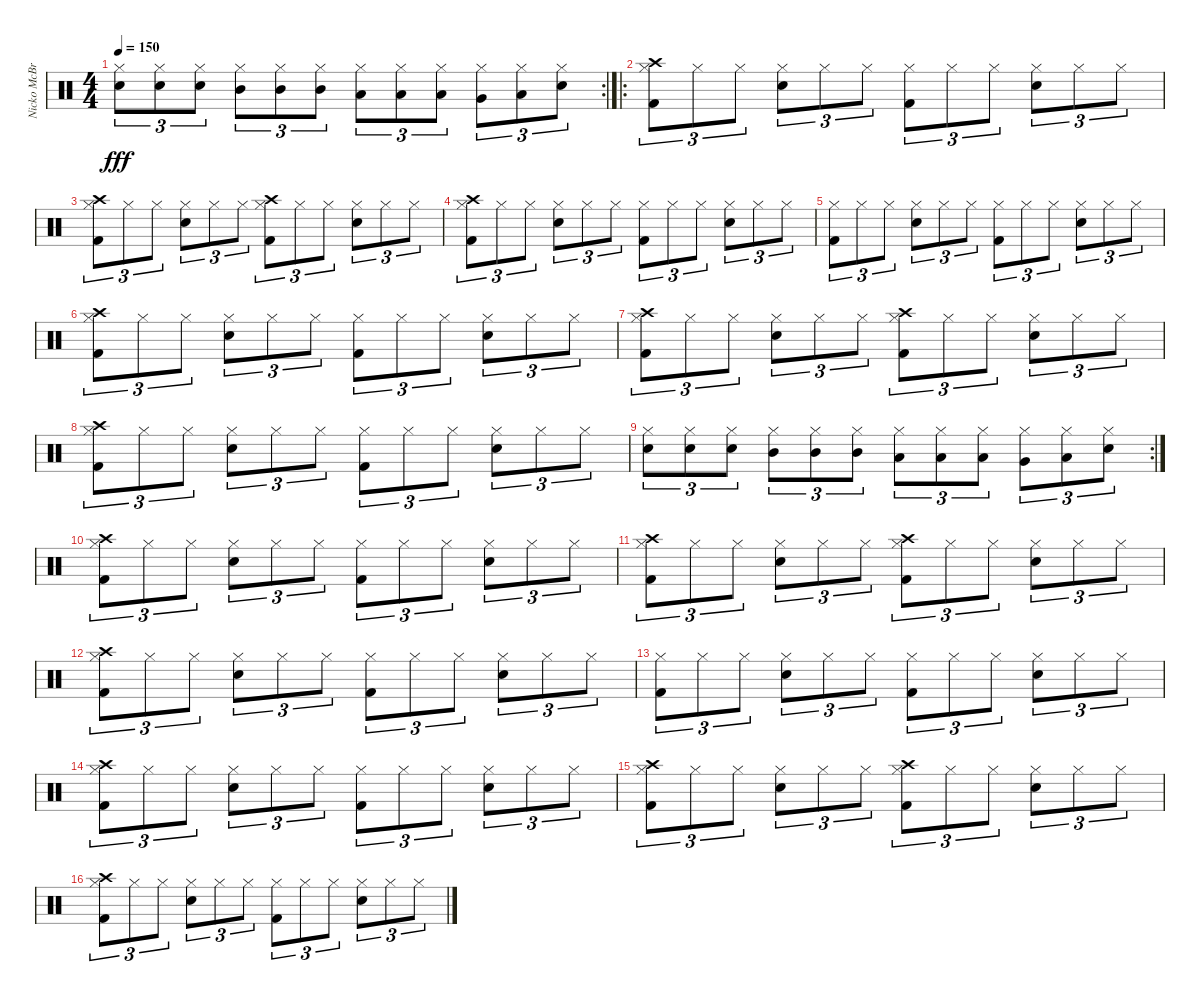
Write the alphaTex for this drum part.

\track ("Nicko McBrain" "Nicko McBr") {instrument percussion}
\staff {score}
\articulation defaults
\rc 2
\ts (4 4)
\tempo 150
\clef neutral
\ks c
("Snare (hit) 2" "Hi-Hat (closed)").8{tu (3 2) dy fff} ("Snare (hit) 2" "Hi-Hat (closed)").8{tu (3 2)} ("Snare (hit) 2" "Hi-Hat (closed)").8{tu (3 2)} ("Mid Tom (hit)" "Hi-Hat (closed)").8{tu (3 2)} ("Mid Tom (hit)" "Hi-Hat (closed)").8{tu (3 2)} ("Mid Tom (hit)" "Hi-Hat (closed)").8{tu (3 2)} ("Low Tom (hit)" "Hi-Hat (closed)").8{tu (3 2)} ("Low Tom (hit)" "Hi-Hat (closed)").8{tu (3 2)} ("Low Tom (hit)" "Hi-Hat (closed)").8{tu (3 2)} ("Very Low Tom (hit)" "Hi-Hat (closed)").8{tu (3 2)} ("Low Floor Tom (hit)" "Hi-Hat (closed)").8{tu (3 2)} ("Electric Snare (hit)" "Hi-Hat (closed)").8{tu (3 2)} |
\ro
("Hi-Hat (closed)" "Kick (hit) 2" "Crash high (hit)").8{tu (3 2)} "Hi-Hat (closed)".8{tu (3 2)} "Hi-Hat (closed)".8{tu (3 2)} ("Hi-Hat (closed)" "Snare (hit) 2").8{tu (3 2)} "Hi-Hat (closed)".8{tu (3 2)} "Hi-Hat (closed)".8{tu (3 2)} ("Hi-Hat (closed)" "Kick (hit) 2").8{tu (3 2)} "Hi-Hat (closed)".8{tu (3 2)} "Hi-Hat (closed)".8{tu (3 2)} ("Hi-Hat (closed)" "Snare (hit) 2").8{tu (3 2)} "Hi-Hat (closed)".8{tu (3 2)} "Hi-Hat (closed)".8{tu (3 2)} |
("Hi-Hat (closed)" "Kick (hit) 2" "Crash high (hit)").8{tu (3 2)} "Hi-Hat (closed)".8{tu (3 2)} "Hi-Hat (closed)".8{tu (3 2)} ("Hi-Hat (closed)" "Snare (hit) 2").8{tu (3 2)} "Hi-Hat (closed)".8{tu (3 2)} "Hi-Hat (closed)".8{tu (3 2)} ("Hi-Hat (closed)" "Kick (hit) 2" "Crash high (hit)").8{tu (3 2)} "Hi-Hat (closed)".8{tu (3 2)} "Hi-Hat (closed)".8{tu (3 2)} ("Hi-Hat (closed)" "Snare (hit) 2").8{tu (3 2)} "Hi-Hat (closed)".8{tu (3 2)} "Hi-Hat (closed)".8{tu (3 2)} |
("Hi-Hat (closed)" "Kick (hit) 2" "Crash high (hit)").8{tu (3 2)} "Hi-Hat (closed)".8{tu (3 2)} "Hi-Hat (closed)".8{tu (3 2)} ("Hi-Hat (closed)" "Snare (hit) 2").8{tu (3 2)} "Hi-Hat (closed)".8{tu (3 2)} "Hi-Hat (closed)".8{tu (3 2)} ("Hi-Hat (closed)" "Kick (hit) 2").8{tu (3 2)} "Hi-Hat (closed)".8{tu (3 2)} "Hi-Hat (closed)".8{tu (3 2)} ("Hi-Hat (closed)" "Snare (hit) 2").8{tu (3 2)} "Hi-Hat (closed)".8{tu (3 2)} "Hi-Hat (closed)".8{tu (3 2)} |
("Hi-Hat (closed)" "Kick (hit) 2").8{tu (3 2)} "Hi-Hat (closed)".8{tu (3 2)} "Hi-Hat (closed)".8{tu (3 2)} ("Hi-Hat (closed)" "Snare (hit) 2").8{tu (3 2)} "Hi-Hat (closed)".8{tu (3 2)} "Hi-Hat (closed)".8{tu (3 2)} ("Hi-Hat (closed)" "Kick (hit) 2").8{tu (3 2)} "Hi-Hat (closed)".8{tu (3 2)} "Hi-Hat (closed)".8{tu (3 2)} ("Hi-Hat (closed)" "Snare (hit) 2").8{tu (3 2)} "Hi-Hat (closed)".8{tu (3 2)} "Hi-Hat (closed)".8{tu (3 2)} |
("Hi-Hat (closed)" "Kick (hit) 2" "Crash high (hit)").8{tu (3 2)} "Hi-Hat (closed)".8{tu (3 2)} "Hi-Hat (closed)".8{tu (3 2)} ("Hi-Hat (closed)" "Snare (hit) 2").8{tu (3 2)} "Hi-Hat (closed)".8{tu (3 2)} "Hi-Hat (closed)".8{tu (3 2)} ("Hi-Hat (closed)" "Kick (hit) 2").8{tu (3 2)} "Hi-Hat (closed)".8{tu (3 2)} "Hi-Hat (closed)".8{tu (3 2)} ("Hi-Hat (closed)" "Snare (hit) 2").8{tu (3 2)} "Hi-Hat (closed)".8{tu (3 2)} "Hi-Hat (closed)".8{tu (3 2)} |
("Hi-Hat (closed)" "Kick (hit) 2" "Crash high (hit)").8{tu (3 2)} "Hi-Hat (closed)".8{tu (3 2)} "Hi-Hat (closed)".8{tu (3 2)} ("Hi-Hat (closed)" "Snare (hit) 2").8{tu (3 2)} "Hi-Hat (closed)".8{tu (3 2)} "Hi-Hat (closed)".8{tu (3 2)} ("Hi-Hat (closed)" "Kick (hit) 2" "Crash high (hit)").8{tu (3 2)} "Hi-Hat (closed)".8{tu (3 2)} "Hi-Hat (closed)".8{tu (3 2)} ("Hi-Hat (closed)" "Snare (hit) 2").8{tu (3 2)} "Hi-Hat (closed)".8{tu (3 2)} "Hi-Hat (closed)".8{tu (3 2)} |
("Hi-Hat (closed)" "Kick (hit) 2" "Crash high (hit)").8{tu (3 2)} "Hi-Hat (closed)".8{tu (3 2)} "Hi-Hat (closed)".8{tu (3 2)} ("Hi-Hat (closed)" "Snare (hit) 2").8{tu (3 2)} "Hi-Hat (closed)".8{tu (3 2)} "Hi-Hat (closed)".8{tu (3 2)} ("Hi-Hat (closed)" "Kick (hit) 2").8{tu (3 2)} "Hi-Hat (closed)".8{tu (3 2)} "Hi-Hat (closed)".8{tu (3 2)} ("Hi-Hat (closed)" "Snare (hit) 2").8{tu (3 2)} "Hi-Hat (closed)".8{tu (3 2)} "Hi-Hat (closed)".8{tu (3 2)} |
\rc 2
("Snare (hit) 2" "Hi-Hat (closed)").8{tu (3 2)} ("Snare (hit) 2" "Hi-Hat (closed)").8{tu (3 2)} ("Snare (hit) 2" "Hi-Hat (closed)").8{tu (3 2)} ("Mid Tom (hit)" "Hi-Hat (closed)").8{tu (3 2)} ("Mid Tom (hit)" "Hi-Hat (closed)").8{tu (3 2)} ("Mid Tom (hit)" "Hi-Hat (closed)").8{tu (3 2)} ("Low Tom (hit)" "Hi-Hat (closed)").8{tu (3 2)} ("Low Tom (hit)" "Hi-Hat (closed)").8{tu (3 2)} ("Low Tom (hit)" "Hi-Hat (closed)").8{tu (3 2)} ("Very Low Tom (hit)" "Hi-Hat (closed)").8{tu (3 2)} ("Low Floor Tom (hit)" "Hi-Hat (closed)").8{tu (3 2)} ("Electric Snare (hit)" "Hi-Hat (closed)").8{tu (3 2)} |
("Hi-Hat (closed)" "Kick (hit) 2" "Crash high (hit)").8{tu (3 2)} "Hi-Hat (closed)".8{tu (3 2)} "Hi-Hat (closed)".8{tu (3 2)} ("Hi-Hat (closed)" "Snare (hit) 2").8{tu (3 2)} "Hi-Hat (closed)".8{tu (3 2)} "Hi-Hat (closed)".8{tu (3 2)} ("Hi-Hat (closed)" "Kick (hit) 2").8{tu (3 2)} "Hi-Hat (closed)".8{tu (3 2)} "Hi-Hat (closed)".8{tu (3 2)} ("Hi-Hat (closed)" "Snare (hit) 2").8{tu (3 2)} "Hi-Hat (closed)".8{tu (3 2)} "Hi-Hat (closed)".8{tu (3 2)} |
("Hi-Hat (closed)" "Kick (hit) 2" "Crash high (hit)").8{tu (3 2)} "Hi-Hat (closed)".8{tu (3 2)} "Hi-Hat (closed)".8{tu (3 2)} ("Hi-Hat (closed)" "Snare (hit) 2").8{tu (3 2)} "Hi-Hat (closed)".8{tu (3 2)} "Hi-Hat (closed)".8{tu (3 2)} ("Hi-Hat (closed)" "Kick (hit) 2" "Crash high (hit)").8{tu (3 2)} "Hi-Hat (closed)".8{tu (3 2)} "Hi-Hat (closed)".8{tu (3 2)} ("Hi-Hat (closed)" "Snare (hit) 2").8{tu (3 2)} "Hi-Hat (closed)".8{tu (3 2)} "Hi-Hat (closed)".8{tu (3 2)} |
("Hi-Hat (closed)" "Kick (hit) 2" "Crash high (hit)").8{tu (3 2)} "Hi-Hat (closed)".8{tu (3 2)} "Hi-Hat (closed)".8{tu (3 2)} ("Hi-Hat (closed)" "Snare (hit) 2").8{tu (3 2)} "Hi-Hat (closed)".8{tu (3 2)} "Hi-Hat (closed)".8{tu (3 2)} ("Hi-Hat (closed)" "Kick (hit) 2").8{tu (3 2)} "Hi-Hat (closed)".8{tu (3 2)} "Hi-Hat (closed)".8{tu (3 2)} ("Hi-Hat (closed)" "Snare (hit) 2").8{tu (3 2)} "Hi-Hat (closed)".8{tu (3 2)} "Hi-Hat (closed)".8{tu (3 2)} |
("Hi-Hat (closed)" "Kick (hit) 2").8{tu (3 2)} "Hi-Hat (closed)".8{tu (3 2)} "Hi-Hat (closed)".8{tu (3 2)} ("Hi-Hat (closed)" "Snare (hit) 2").8{tu (3 2)} "Hi-Hat (closed)".8{tu (3 2)} "Hi-Hat (closed)".8{tu (3 2)} ("Hi-Hat (closed)" "Kick (hit) 2").8{tu (3 2)} "Hi-Hat (closed)".8{tu (3 2)} "Hi-Hat (closed)".8{tu (3 2)} ("Hi-Hat (closed)" "Snare (hit) 2").8{tu (3 2)} "Hi-Hat (closed)".8{tu (3 2)} "Hi-Hat (closed)".8{tu (3 2)} |
("Hi-Hat (closed)" "Kick (hit) 2" "Crash high (hit)").8{tu (3 2)} "Hi-Hat (closed)".8{tu (3 2)} "Hi-Hat (closed)".8{tu (3 2)} ("Hi-Hat (closed)" "Snare (hit) 2").8{tu (3 2)} "Hi-Hat (closed)".8{tu (3 2)} "Hi-Hat (closed)".8{tu (3 2)} ("Hi-Hat (closed)" "Kick (hit) 2").8{tu (3 2)} "Hi-Hat (closed)".8{tu (3 2)} "Hi-Hat (closed)".8{tu (3 2)} ("Hi-Hat (closed)" "Snare (hit) 2").8{tu (3 2)} "Hi-Hat (closed)".8{tu (3 2)} "Hi-Hat (closed)".8{tu (3 2)} |
("Hi-Hat (closed)" "Kick (hit) 2" "Crash high (hit)").8{tu (3 2)} "Hi-Hat (closed)".8{tu (3 2)} "Hi-Hat (closed)".8{tu (3 2)} ("Hi-Hat (closed)" "Snare (hit) 2").8{tu (3 2)} "Hi-Hat (closed)".8{tu (3 2)} "Hi-Hat (closed)".8{tu (3 2)} ("Hi-Hat (closed)" "Kick (hit) 2" "Crash high (hit)").8{tu (3 2)} "Hi-Hat (closed)".8{tu (3 2)} "Hi-Hat (closed)".8{tu (3 2)} ("Hi-Hat (closed)" "Snare (hit) 2").8{tu (3 2)} "Hi-Hat (closed)".8{tu (3 2)} "Hi-Hat (closed)".8{tu (3 2)} |
("Hi-Hat (closed)" "Kick (hit) 2" "Crash high (hit)").8{tu (3 2)} "Hi-Hat (closed)".8{tu (3 2)} "Hi-Hat (closed)".8{tu (3 2)} ("Hi-Hat (closed)" "Snare (hit) 2").8{tu (3 2)} "Hi-Hat (closed)".8{tu (3 2)} "Hi-Hat (closed)".8{tu (3 2)} ("Hi-Hat (closed)" "Kick (hit) 2").8{tu (3 2)} "Hi-Hat (closed)".8{tu (3 2)} "Hi-Hat (closed)".8{tu (3 2)} ("Hi-Hat (closed)" "Snare (hit) 2").8{tu (3 2)} "Hi-Hat (closed)".8{tu (3 2)} "Hi-Hat (closed)".8{tu (3 2)}
